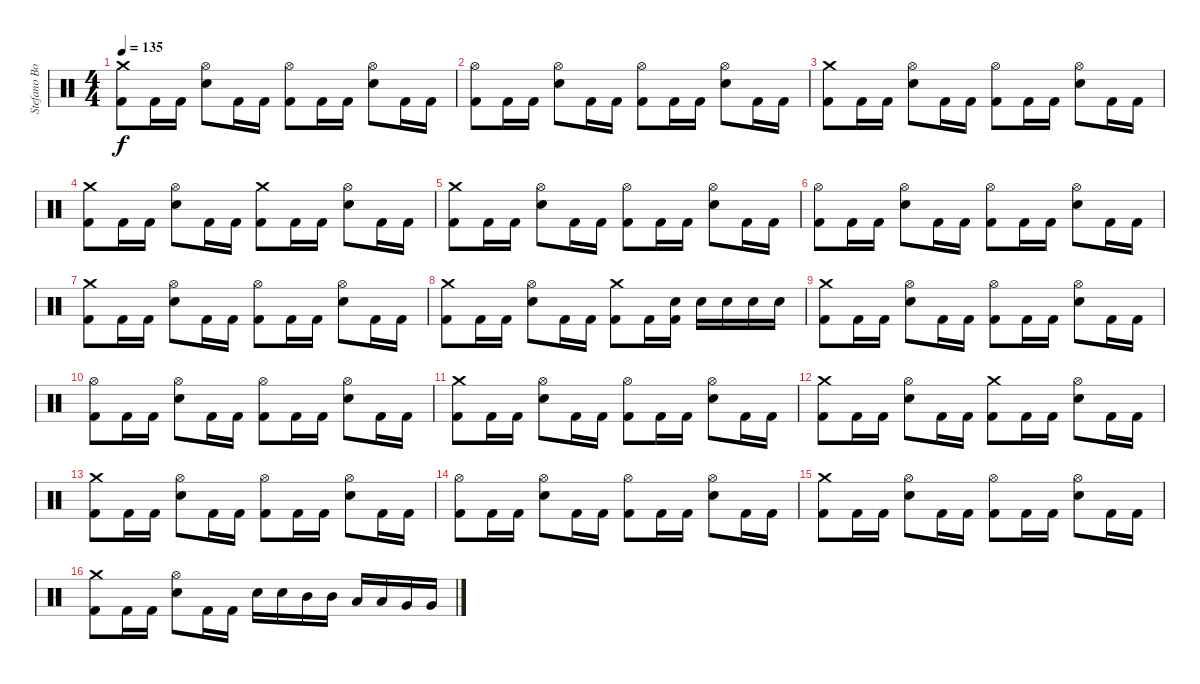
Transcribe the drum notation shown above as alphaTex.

\track ("Stefano Bonini" "Stefano Bo") {instrument percussion}
\staff {score}
\articulation defaults
\ts (4 4)
\tempo 135
\clef neutral
\ks c
("Crash medium (hit)" "Kick (hit) 2").8{dy f} "Kick (hit) 2".16 "Kick (hit) 2".16 ("Hi-Hat (open)" "Electric Snare (hit)").8 "Kick (hit) 2".16 "Kick (hit) 2".16 ("Hi-Hat (open)" "Kick (hit) 2").8 "Kick (hit) 2".16 "Kick (hit) 2".16 ("Hi-Hat (open)" "Electric Snare (hit)").8 "Kick (hit) 2".16 "Kick (hit) 2".16 |
("Hi-Hat (open)" "Kick (hit) 2").8 "Kick (hit) 2".16 "Kick (hit) 2".16 ("Hi-Hat (open)" "Electric Snare (hit)").8 "Kick (hit) 2".16 "Kick (hit) 2".16 ("Hi-Hat (open)" "Kick (hit) 2").8 "Kick (hit) 2".16 "Kick (hit) 2".16 ("Hi-Hat (open)" "Electric Snare (hit)").8 "Kick (hit) 2".16 "Kick (hit) 2".16 |
("Crash medium (hit)" "Kick (hit) 2").8 "Kick (hit) 2".16 "Kick (hit) 2".16 ("Hi-Hat (open)" "Electric Snare (hit)").8 "Kick (hit) 2".16 "Kick (hit) 2".16 ("Hi-Hat (open)" "Kick (hit) 2").8 "Kick (hit) 2".16 "Kick (hit) 2".16 ("Hi-Hat (open)" "Electric Snare (hit)").8 "Kick (hit) 2".16 "Kick (hit) 2".16 |
("Crash medium (hit)" "Kick (hit) 2").8 "Kick (hit) 2".16 "Kick (hit) 2".16 ("Hi-Hat (open)" "Electric Snare (hit)").8 "Kick (hit) 2".16 "Kick (hit) 2".16 ("Crash medium (hit)" "Kick (hit) 2").8 "Kick (hit) 2".16 "Kick (hit) 2".16 ("Hi-Hat (open)" "Electric Snare (hit)").8 "Kick (hit) 2".16 "Kick (hit) 2".16 |
("Crash medium (hit)" "Kick (hit) 2").8 "Kick (hit) 2".16 "Kick (hit) 2".16 ("Hi-Hat (open)" "Electric Snare (hit)").8 "Kick (hit) 2".16 "Kick (hit) 2".16 ("Hi-Hat (open)" "Kick (hit) 2").8 "Kick (hit) 2".16 "Kick (hit) 2".16 ("Hi-Hat (open)" "Electric Snare (hit)").8 "Kick (hit) 2".16 "Kick (hit) 2".16 |
("Hi-Hat (open)" "Kick (hit) 2").8 "Kick (hit) 2".16 "Kick (hit) 2".16 ("Hi-Hat (open)" "Electric Snare (hit)").8 "Kick (hit) 2".16 "Kick (hit) 2".16 ("Hi-Hat (open)" "Kick (hit) 2").8 "Kick (hit) 2".16 "Kick (hit) 2".16 ("Hi-Hat (open)" "Electric Snare (hit)").8 "Kick (hit) 2".16 "Kick (hit) 2".16 |
("Crash medium (hit)" "Kick (hit) 2").8 "Kick (hit) 2".16 "Kick (hit) 2".16 ("Hi-Hat (open)" "Electric Snare (hit)").8 "Kick (hit) 2".16 "Kick (hit) 2".16 ("Hi-Hat (open)" "Kick (hit) 2").8 "Kick (hit) 2".16 "Kick (hit) 2".16 ("Hi-Hat (open)" "Electric Snare (hit)").8 "Kick (hit) 2".16 "Kick (hit) 2".16 |
("Crash medium (hit)" "Kick (hit) 2").8 "Kick (hit) 2".16 "Kick (hit) 2".16 ("Hi-Hat (open)" "Electric Snare (hit)").8 "Kick (hit) 2".16 "Kick (hit) 2".16 ("Crash medium (hit)" "Kick (hit) 2").8 "Kick (hit) 2".16 ("Electric Snare (hit)" "Kick (hit) 2").16 "Electric Snare (hit)".16 "Electric Snare (hit)".16 "Electric Snare (hit)".16 "Electric Snare (hit)".16 |
("Crash medium (hit)" "Kick (hit) 2").8 "Kick (hit) 2".16 "Kick (hit) 2".16 ("Hi-Hat (open)" "Electric Snare (hit)").8 "Kick (hit) 2".16 "Kick (hit) 2".16 ("Hi-Hat (open)" "Kick (hit) 2").8 "Kick (hit) 2".16 "Kick (hit) 2".16 ("Hi-Hat (open)" "Electric Snare (hit)").8 "Kick (hit) 2".16 "Kick (hit) 2".16 |
("Hi-Hat (open)" "Kick (hit) 2").8 "Kick (hit) 2".16 "Kick (hit) 2".16 ("Hi-Hat (open)" "Electric Snare (hit)").8 "Kick (hit) 2".16 "Kick (hit) 2".16 ("Hi-Hat (open)" "Kick (hit) 2").8 "Kick (hit) 2".16 "Kick (hit) 2".16 ("Hi-Hat (open)" "Electric Snare (hit)").8 "Kick (hit) 2".16 "Kick (hit) 2".16 |
("Crash medium (hit)" "Kick (hit) 2").8 "Kick (hit) 2".16 "Kick (hit) 2".16 ("Hi-Hat (open)" "Electric Snare (hit)").8 "Kick (hit) 2".16 "Kick (hit) 2".16 ("Hi-Hat (open)" "Kick (hit) 2").8 "Kick (hit) 2".16 "Kick (hit) 2".16 ("Hi-Hat (open)" "Electric Snare (hit)").8 "Kick (hit) 2".16 "Kick (hit) 2".16 |
("Crash medium (hit)" "Kick (hit) 2").8 "Kick (hit) 2".16 "Kick (hit) 2".16 ("Hi-Hat (open)" "Electric Snare (hit)").8 "Kick (hit) 2".16 "Kick (hit) 2".16 ("Crash medium (hit)" "Kick (hit) 2").8 "Kick (hit) 2".16 "Kick (hit) 2".16 ("Hi-Hat (open)" "Electric Snare (hit)").8 "Kick (hit) 2".16 "Kick (hit) 2".16 |
("Crash medium (hit)" "Kick (hit) 2").8 "Kick (hit) 2".16 "Kick (hit) 2".16 ("Hi-Hat (open)" "Electric Snare (hit)").8 "Kick (hit) 2".16 "Kick (hit) 2".16 ("Hi-Hat (open)" "Kick (hit) 2").8 "Kick (hit) 2".16 "Kick (hit) 2".16 ("Hi-Hat (open)" "Electric Snare (hit)").8 "Kick (hit) 2".16 "Kick (hit) 2".16 |
("Hi-Hat (open)" "Kick (hit) 2").8 "Kick (hit) 2".16 "Kick (hit) 2".16 ("Hi-Hat (open)" "Electric Snare (hit)").8 "Kick (hit) 2".16 "Kick (hit) 2".16 ("Hi-Hat (open)" "Kick (hit) 2").8 "Kick (hit) 2".16 "Kick (hit) 2".16 ("Hi-Hat (open)" "Electric Snare (hit)").8 "Kick (hit) 2".16 "Kick (hit) 2".16 |
("Crash medium (hit)" "Kick (hit) 2").8 "Kick (hit) 2".16 "Kick (hit) 2".16 ("Hi-Hat (open)" "Electric Snare (hit)").8 "Kick (hit) 2".16 "Kick (hit) 2".16 ("Hi-Hat (open)" "Kick (hit) 2").8 "Kick (hit) 2".16 "Kick (hit) 2".16 ("Hi-Hat (open)" "Electric Snare (hit)").8 "Kick (hit) 2".16 "Kick (hit) 2".16 |
("Crash medium (hit)" "Kick (hit) 2").8 "Kick (hit) 2".16 "Kick (hit) 2".16 ("Hi-Hat (open)" "Electric Snare (hit)").8 "Kick (hit) 2".16 "Kick (hit) 2".16 "Electric Snare (hit)".16 "Electric Snare (hit)".16 "Mid Tom (hit)".16 "Mid Tom (hit)".16 "Low Tom (hit)".16 "Low Tom (hit)".16 "Very Low Tom (hit)".16 "Very Low Tom (hit)".16
